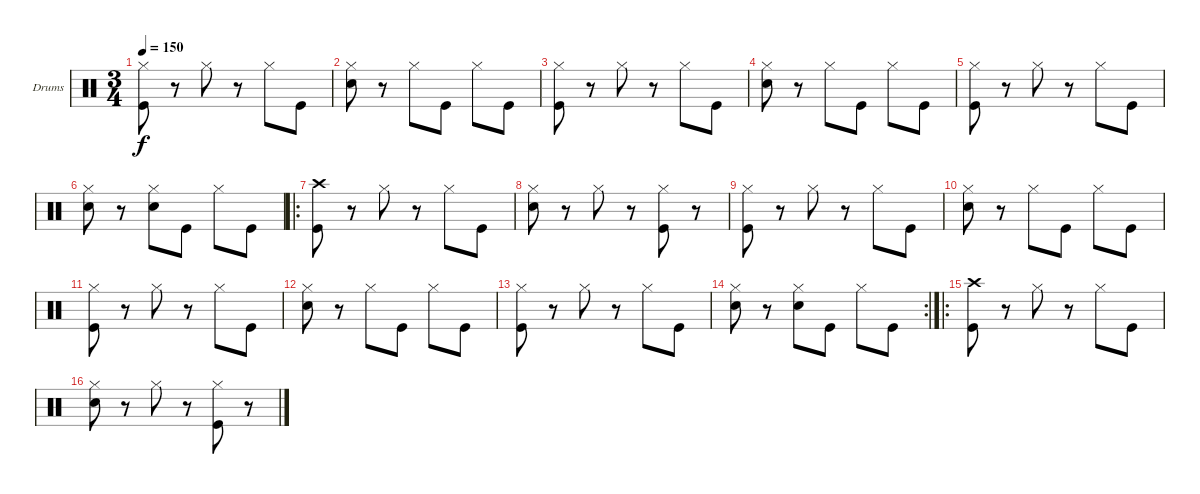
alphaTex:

\defaultSystemsLayout 4
\bracketExtendMode groupsimilarinstruments
\firstSystemTrackNameOrientation horizontal
\otherSystemsTrackNameOrientation horizontal
\track ("Scott" "Drums") {instrument percussion}
\staff {score}
\articulation defaults
\ts (3 4)
\tempo 150
\clef neutral
\scale
0.333333
\ks c
("Hi-Hat (closed)" "Kick (hit)").8{dy f} r.8 "Hi-Hat (closed)".8 r.8 "Hi-Hat (closed)".8 "Kick (hit)".8 |
\scale
0.333333 ("Snare (hit) 2" "Hi-Hat (closed)").8 r.8 "Hi-Hat (closed)".8 "Kick (hit)".8 "Hi-Hat (closed)".8 "Kick (hit)".8 |
\scale
0.333333 ("Hi-Hat (closed)" "Kick (hit)").8 r.8 "Hi-Hat (closed)".8 r.8 "Hi-Hat (closed)".8 "Kick (hit)".8 |
\scale
0.333333 ("Snare (hit) 2" "Hi-Hat (closed)").8 r.8 "Hi-Hat (closed)".8 "Kick (hit)".8 "Hi-Hat (closed)".8 "Kick (hit)".8 |
\scale
0.333333 ("Hi-Hat (closed)" "Kick (hit)").8 r.8 "Hi-Hat (closed)".8 r.8 "Hi-Hat (closed)".8 "Kick (hit)".8 |
\scale
0.333333 ("Hi-Hat (closed)" "Snare (hit) 2").8 r.8 ("Snare (hit) 2" "Hi-Hat (closed)").8 "Kick (hit)".8 "Hi-Hat (closed)".8 "Kick (hit)".8 |
\ro
\scale
0.377049 ("Kick (hit)" "Crash high (hit)").8 r.8 "Hi-Hat (closed)".8 r.8 "Hi-Hat (closed)".8 "Kick (hit)".8 |
\scale
0.311475 ("Hi-Hat (closed)" "Snare (hit) 2").8 r.8 "Hi-Hat (closed)".8 r.8 ("Hi-Hat (closed)" "Kick (hit)").8 r.8 |
\scale
0.311475 ("Hi-Hat (closed)" "Kick (hit)").8 r.8 "Hi-Hat (closed)".8 r.8 "Hi-Hat (closed)".8 "Kick (hit)".8 |
\scale
0.333333 ("Snare (hit) 2" "Hi-Hat (closed)").8 r.8 "Hi-Hat (closed)".8 "Kick (hit)".8 "Hi-Hat (closed)".8 "Kick (hit)".8 |
\scale
0.333333 ("Hi-Hat (closed)" "Kick (hit)").8 r.8 "Hi-Hat (closed)".8 r.8 "Hi-Hat (closed)".8 "Kick (hit)".8 |
\scale
0.333333 ("Snare (hit) 2" "Hi-Hat (closed)").8 r.8 "Hi-Hat (closed)".8 "Kick (hit)".8 "Hi-Hat (closed)".8 "Kick (hit)".8 |
\scale
0.301587 ("Hi-Hat (closed)" "Kick (hit)").8 r.8 "Hi-Hat (closed)".8 r.8 "Hi-Hat (closed)".8 "Kick (hit)".8 |
\rc 2
\scale
0.333333 ("Hi-Hat (closed)" "Snare (hit) 2").8 r.8 ("Snare (hit) 2" "Hi-Hat (closed)").8 "Kick (hit)".8 "Hi-Hat (closed)".8 "Kick (hit)".8 |
\ro
\scale
0.365079 ("Kick (hit)" "Crash high (hit)").8 r.8 "Hi-Hat (closed)".8 r.8 "Hi-Hat (closed)".8 "Kick (hit)".8 |
\scale
0.333333 ("Hi-Hat (closed)" "Snare (hit) 2").8 r.8 "Hi-Hat (closed)".8 r.8 ("Hi-Hat (closed)" "Kick (hit)").8 r.8
